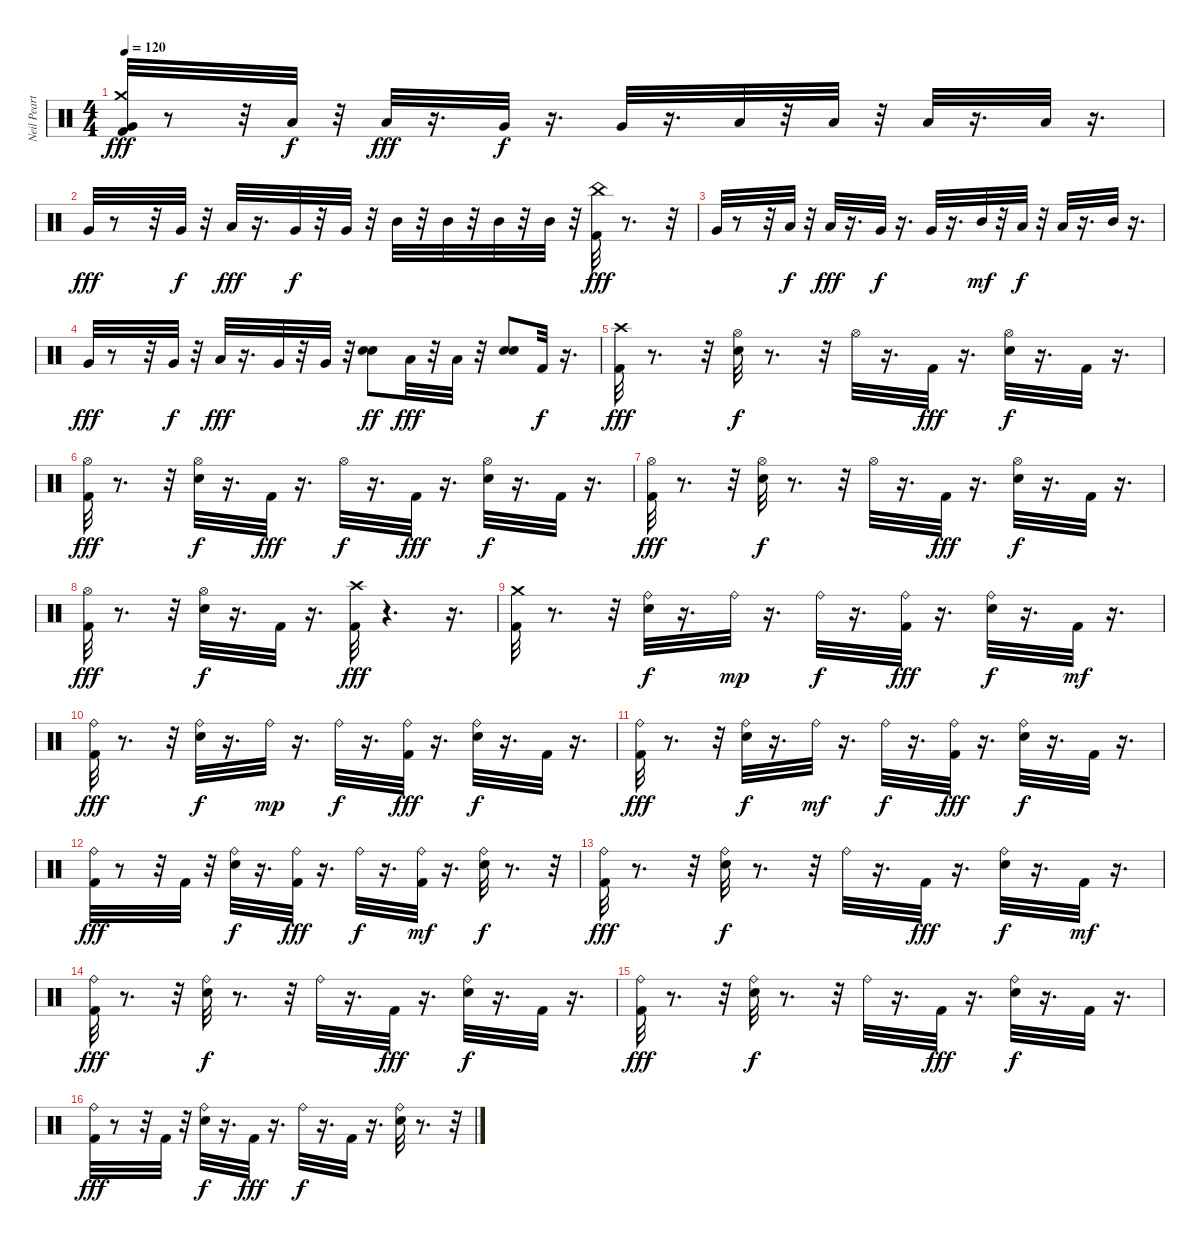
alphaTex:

\track ("Neil Peart" "Neil Peart") {instrument percussion}
\staff {score}
\articulation defaults
\ts (4 4)
\tempo 120
\clef neutral
\ks c
("Kick (hit) 2" "Crash medium (hit)" "Very Low Tom (hit)").32{dy fff} r.8 r.32 "Low Floor Tom (hit)".32{dy f} r.32 "Low Floor Tom (hit)".32{dy fff} r.16{d} "Very Low Tom (hit)".32{dy f} r.16{d} "Very Low Tom (hit)".32 r.16{d} "Low Tom (hit)".32 r.32 "Low Tom (hit)".32 r.32 "Low Tom (hit)".32 r.16{d} "Low Floor Tom (hit)".32 r.16{d} |
"Very Low Tom (hit)".32{dy fff} r.8 r.32 "Very Low Tom (hit)".32{dy f} r.32 "Low Floor Tom (hit)".32{dy fff} r.16{d} "Very Low Tom (hit)".32{dy f} r.32 "Very Low Tom (hit)".32 r.32 "Mid Tom (hit)".32 r.32 "Mid Tom (hit)".32 r.32 "Mid Tom (hit)".32 r.32 "Mid Tom (hit)".32 r.32 ("Kick (hit) 2" "China (hit)").32{dy fff} r.8{d} r.32 |
"Very Low Tom (hit)".32 r.8 r.32 "Low Floor Tom (hit)".32{dy f} r.32 "Low Floor Tom (hit)".32{dy fff} r.16{d} "Very Low Tom (hit)".32{dy f} r.16{d} "Very Low Tom (hit)".32 r.16{d} "Mid Tom (hit)".32{dy mf} r.32 "Low Tom (hit)".32{dy f} r.32 "Low Tom (hit)".32 r.16{d} "Mid Tom (hit)".32 r.16{d} |
"Very Low Tom (hit)".32{dy fff} r.8 r.32 "Very Low Tom (hit)".32{dy f} r.32 "Low Floor Tom (hit)".32{dy fff} r.16{d} "Very Low Tom (hit)".32 r.32 "Very Low Tom (hit)".32 r.32 ("Snare (hit) 2" "Snare (hit) 2").8{dy ff} "Low Floor Tom (hit)".32{dy fff} r.32 "Low Floor Tom (hit)".32 r.32 ("Snare (hit) 2" "Snare (hit) 2").8 "Kick (hit) 2".32{dy f} r.16{d} |
("Crash high (hit)" "Kick (hit) 2").32{dy fff} r.8{d} r.32 ("Hi-Hat (open)" "Snare (hit) 2").32{dy f} r.8{d} r.32 "Hi-Hat (open)".32 r.16{d} "Kick (hit) 2".32{dy fff} r.16{d} ("Hi-Hat (open)" "Snare (hit) 2").32{dy f} r.16{d} "Kick (hit) 2".32 r.16{d} |
("Hi-Hat (open)" "Kick (hit) 2").32{dy fff} r.8{d} r.32 ("Hi-Hat (open)" "Snare (hit) 2").32{dy f} r.16{d} "Kick (hit) 2".32{dy fff} r.16{d} "Hi-Hat (open)".32{dy f} r.16{d} "Kick (hit) 2".32{dy fff} r.16{d} ("Hi-Hat (open)" "Snare (hit) 2").32{dy f} r.16{d} "Kick (hit) 2".32 r.16{d} |
("Hi-Hat (open)" "Kick (hit) 2").32{dy fff} r.8{d} r.32 ("Snare (hit) 2" "Hi-Hat (open)").32{dy f} r.8{d} r.32 "Hi-Hat (open)".32 r.16{d} "Kick (hit) 2".32{dy fff} r.16{d} ("Snare (hit) 2" "Hi-Hat (open)").32{dy f} r.16{d} "Kick (hit) 2".32 r.16{d} |
("Hi-Hat (open)" "Kick (hit) 2").32{dy fff} r.8{d} r.32 ("Hi-Hat (open)" "Snare (hit) 2").32{dy f} r.16{d} "Kick (hit) 2".32 r.16{d} ("Crash high (hit)" "Kick (hit) 2").32{dy fff} r.4{d} r.16{d} |
("Crash medium (hit)" "Kick (hit) 2").32 r.8{d} r.32 ("Ride (bell)" "Snare (hit) 2").32{dy f} r.16{d} "Ride (bell)".32{dy mp} r.16{d} "Ride (bell)".32{dy f} r.16{d} ("Ride (bell)" "Kick (hit) 2").32{dy fff} r.16{d} ("Ride (bell)" "Snare (hit) 2").32{dy f} r.16{d} "Kick (hit) 2".32{dy mf} r.16{d} |
("Ride (bell)" "Kick (hit) 2").32{dy fff} r.8{d} r.32 ("Ride (bell)" "Snare (hit) 2").32{dy f} r.16{d} "Ride (bell)".32{dy mp} r.16{d} "Ride (bell)".32{dy f} r.16{d} ("Ride (bell)" "Kick (hit) 2").32{dy fff} r.16{d} ("Ride (bell)" "Snare (hit) 2").32{dy f} r.16{d} "Kick (hit) 2".32 r.16{d} |
("Ride (bell)" "Kick (hit) 2").32{dy fff} r.8{d} r.32 ("Ride (bell)" "Snare (hit) 2").32{dy f} r.16{d} "Ride (bell)".32{dy mf} r.16{d} "Ride (bell)".32{dy f} r.16{d} ("Ride (bell)" "Kick (hit) 2").32{dy fff} r.16{d} ("Ride (bell)" "Snare (hit) 2").32{dy f} r.16{d} "Kick (hit) 2".32 r.16{d} |
("Ride (bell)" "Kick (hit) 2").32{dy fff} r.8 r.32 "Kick (hit) 2".32 r.32 ("Ride (bell)" "Snare (hit) 2").32{dy f} r.16{d} ("Ride (bell)" "Kick (hit) 2").32{dy fff} r.16{d} "Ride (bell)".32{dy f} r.16{d} ("Ride (bell)" "Kick (hit) 2").32{dy mf} r.16{d} ("Ride (bell)" "Snare (hit) 2").32{dy f} r.8{d} r.32 |
("Ride (bell)" "Kick (hit) 2").32{dy fff} r.8{d} r.32 ("Ride (bell)" "Snare (hit) 2").32{dy f} r.8{d} r.32 "Ride (bell)".32 r.16{d} "Kick (hit) 2".32{dy fff} r.16{d} ("Ride (bell)" "Snare (hit) 2").32{dy f} r.16{d} "Kick (hit) 2".32{dy mf} r.16{d} |
("Ride (bell)" "Kick (hit) 2").32{dy fff} r.8{d} r.32 ("Ride (bell)" "Snare (hit) 2").32{dy f} r.8{d} r.32 "Ride (bell)".32 r.16{d} "Kick (hit) 2".32{dy fff} r.16{d} ("Ride (bell)" "Snare (hit) 2").32{dy f} r.16{d} "Kick (hit) 2".32 r.16{d} |
("Ride (bell)" "Kick (hit) 2").32{dy fff} r.8{d} r.32 ("Ride (bell)" "Snare (hit) 2").32{dy f} r.8{d} r.32 "Ride (bell)".32 r.16{d} "Kick (hit) 2".32{dy fff} r.16{d} ("Ride (bell)" "Snare (hit) 2").32{dy f} r.16{d} "Kick (hit) 2".32 r.16{d} |
("Ride (bell)" "Kick (hit) 2").32{dy fff} r.8 r.32 "Kick (hit) 2".32 r.32 ("Ride (bell)" "Snare (hit) 2").32{dy f} r.16{d} "Kick (hit) 2".32{dy fff} r.16{d} "Ride (bell)".32{dy f} r.16{d} "Kick (hit) 2".32 r.16{d} ("Ride (bell)" "Snare (hit) 2").32 r.8{d} r.32
